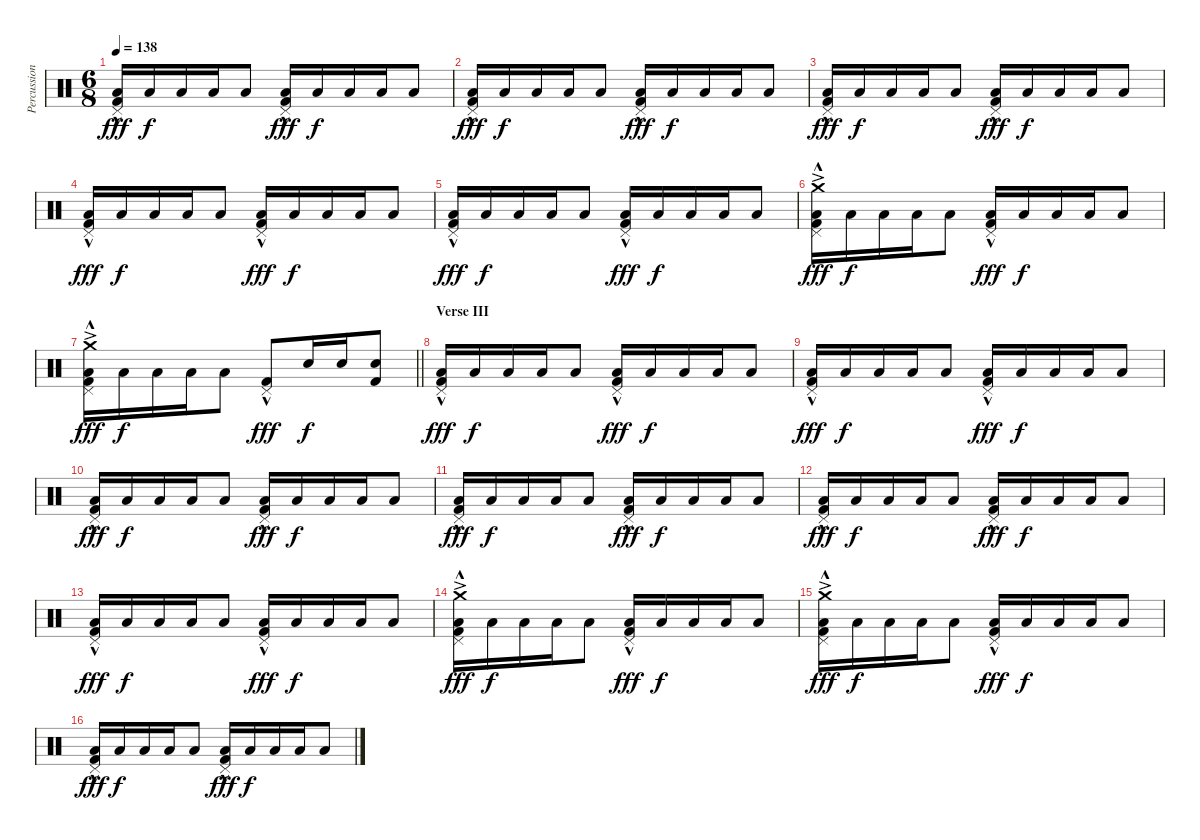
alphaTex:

\track ("Percussion" "Percussion") {instrument percussion}
\staff {score}
\articulation defaults
\ts (6 8)
\tempo 138
\clef neutral
\ks c
("Pedal Hi-Hat (hit)"{hac} "Low Floor Tom (hit)" "Kick (hit) 2").16{dy fff} "Low Floor Tom (hit)".16{dy f} "Low Floor Tom (hit)".16 "Low Floor Tom (hit)".16 "Low Floor Tom (hit)".8 ("Pedal Hi-Hat (hit)"{hac} "Low Floor Tom (hit)" "Kick (hit) 2").16{dy fff} "Low Floor Tom (hit)".16{dy f} "Low Floor Tom (hit)".16 "Low Floor Tom (hit)".16 "Low Floor Tom (hit)".8 |
("Pedal Hi-Hat (hit)"{hac} "Low Floor Tom (hit)" "Kick (hit) 2").16{dy fff} "Low Floor Tom (hit)".16{dy f} "Low Floor Tom (hit)".16 "Low Floor Tom (hit)".16 "Low Floor Tom (hit)".8 ("Pedal Hi-Hat (hit)"{hac} "Low Floor Tom (hit)" "Kick (hit) 2").16{dy fff} "Low Floor Tom (hit)".16{dy f} "Low Floor Tom (hit)".16 "Low Floor Tom (hit)".16 "Low Floor Tom (hit)".8 |
("Pedal Hi-Hat (hit)"{hac} "Low Floor Tom (hit)" "Kick (hit) 2").16{dy fff} "Low Floor Tom (hit)".16{dy f} "Low Floor Tom (hit)".16 "Low Floor Tom (hit)".16 "Low Floor Tom (hit)".8 ("Pedal Hi-Hat (hit)"{hac} "Low Floor Tom (hit)" "Kick (hit) 2").16{dy fff} "Low Floor Tom (hit)".16{dy f} "Low Floor Tom (hit)".16 "Low Floor Tom (hit)".16 "Low Floor Tom (hit)".8 |
("Pedal Hi-Hat (hit)"{hac} "Low Floor Tom (hit)" "Kick (hit) 2").16{dy fff} "Low Floor Tom (hit)".16{dy f} "Low Floor Tom (hit)".16 "Low Floor Tom (hit)".16 "Low Floor Tom (hit)".8 ("Pedal Hi-Hat (hit)"{hac} "Low Floor Tom (hit)" "Kick (hit) 2").16{dy fff} "Low Floor Tom (hit)".16{dy f} "Low Floor Tom (hit)".16 "Low Floor Tom (hit)".16 "Low Floor Tom (hit)".8 |
("Pedal Hi-Hat (hit)"{hac} "Low Floor Tom (hit)" "Kick (hit) 2").16{dy fff} "Low Floor Tom (hit)".16{dy f} "Low Floor Tom (hit)".16 "Low Floor Tom (hit)".16 "Low Floor Tom (hit)".8 ("Pedal Hi-Hat (hit)"{hac} "Low Floor Tom (hit)" "Kick (hit) 2").16{dy fff} "Low Floor Tom (hit)".16{dy f} "Low Floor Tom (hit)".16 "Low Floor Tom (hit)".16 "Low Floor Tom (hit)".8 |
("Crash medium (hit)"{ac} "Pedal Hi-Hat (hit)"{hac} "Low Floor Tom (hit)" "Kick (hit) 2").16{dy fff} "Low Floor Tom (hit)".16{dy f} "Low Floor Tom (hit)".16 "Low Floor Tom (hit)".16 "Low Floor Tom (hit)".8 ("Pedal Hi-Hat (hit)"{hac} "Low Floor Tom (hit)" "Kick (hit) 2").16{dy fff} "Low Floor Tom (hit)".16{dy f} "Low Floor Tom (hit)".16 "Low Floor Tom (hit)".16 "Low Floor Tom (hit)".8 |
\barLineRight lightlight
("Crash medium (hit)"{ac} "Pedal Hi-Hat (hit)"{hac} "Low Floor Tom (hit)" "Kick (hit) 2").16{dy fff} "Low Floor Tom (hit)".16{dy f} "Low Floor Tom (hit)".16 "Low Floor Tom (hit)".16 "Low Floor Tom (hit)".8 ("Pedal Hi-Hat (hit)"{hac} "Kick (hit) 2").8{dy fff} "Electric Snare (hit)".16{dy f} "Electric Snare (hit)".16 ("Electric Snare (hit)" "Kick (hit) 2").8 |
\section ("" "Verse III")
("Pedal Hi-Hat (hit)"{hac} "Low Floor Tom (hit)" "Kick (hit) 2").16{dy fff} "Low Floor Tom (hit)".16{dy f} "Low Floor Tom (hit)".16 "Low Floor Tom (hit)".16 "Low Floor Tom (hit)".8 ("Pedal Hi-Hat (hit)"{hac} "Low Floor Tom (hit)" "Kick (hit) 2").16{dy fff} "Low Floor Tom (hit)".16{dy f} "Low Floor Tom (hit)".16 "Low Floor Tom (hit)".16 "Low Floor Tom (hit)".8 |
("Pedal Hi-Hat (hit)"{hac} "Low Floor Tom (hit)" "Kick (hit) 2").16{dy fff} "Low Floor Tom (hit)".16{dy f} "Low Floor Tom (hit)".16 "Low Floor Tom (hit)".16 "Low Floor Tom (hit)".8 ("Pedal Hi-Hat (hit)"{hac} "Low Floor Tom (hit)" "Kick (hit) 2").16{dy fff} "Low Floor Tom (hit)".16{dy f} "Low Floor Tom (hit)".16 "Low Floor Tom (hit)".16 "Low Floor Tom (hit)".8 |
("Pedal Hi-Hat (hit)"{hac} "Low Floor Tom (hit)" "Kick (hit) 2").16{dy fff} "Low Floor Tom (hit)".16{dy f} "Low Floor Tom (hit)".16 "Low Floor Tom (hit)".16 "Low Floor Tom (hit)".8 ("Pedal Hi-Hat (hit)"{hac} "Low Floor Tom (hit)" "Kick (hit) 2").16{dy fff} "Low Floor Tom (hit)".16{dy f} "Low Floor Tom (hit)".16 "Low Floor Tom (hit)".16 "Low Floor Tom (hit)".8 |
("Pedal Hi-Hat (hit)"{hac} "Low Floor Tom (hit)" "Kick (hit) 2").16{dy fff} "Low Floor Tom (hit)".16{dy f} "Low Floor Tom (hit)".16 "Low Floor Tom (hit)".16 "Low Floor Tom (hit)".8 ("Pedal Hi-Hat (hit)"{hac} "Low Floor Tom (hit)" "Kick (hit) 2").16{dy fff} "Low Floor Tom (hit)".16{dy f} "Low Floor Tom (hit)".16 "Low Floor Tom (hit)".16 "Low Floor Tom (hit)".8 |
("Pedal Hi-Hat (hit)"{hac} "Low Floor Tom (hit)" "Kick (hit) 2").16{dy fff} "Low Floor Tom (hit)".16{dy f} "Low Floor Tom (hit)".16 "Low Floor Tom (hit)".16 "Low Floor Tom (hit)".8 ("Pedal Hi-Hat (hit)"{hac} "Low Floor Tom (hit)" "Kick (hit) 2").16{dy fff} "Low Floor Tom (hit)".16{dy f} "Low Floor Tom (hit)".16 "Low Floor Tom (hit)".16 "Low Floor Tom (hit)".8 |
("Pedal Hi-Hat (hit)"{hac} "Low Floor Tom (hit)" "Kick (hit) 2").16{dy fff} "Low Floor Tom (hit)".16{dy f} "Low Floor Tom (hit)".16 "Low Floor Tom (hit)".16 "Low Floor Tom (hit)".8 ("Pedal Hi-Hat (hit)"{hac} "Low Floor Tom (hit)" "Kick (hit) 2").16{dy fff} "Low Floor Tom (hit)".16{dy f} "Low Floor Tom (hit)".16 "Low Floor Tom (hit)".16 "Low Floor Tom (hit)".8 |
("Crash medium (hit)"{ac} "Pedal Hi-Hat (hit)"{hac} "Low Floor Tom (hit)" "Kick (hit) 2").16{dy fff} "Low Floor Tom (hit)".16{dy f} "Low Floor Tom (hit)".16 "Low Floor Tom (hit)".16 "Low Floor Tom (hit)".8 ("Pedal Hi-Hat (hit)"{hac} "Low Floor Tom (hit)" "Kick (hit) 2").16{dy fff} "Low Floor Tom (hit)".16{dy f} "Low Floor Tom (hit)".16 "Low Floor Tom (hit)".16 "Low Floor Tom (hit)".8 |
("Crash medium (hit)"{ac} "Pedal Hi-Hat (hit)"{hac} "Low Floor Tom (hit)" "Kick (hit) 2").16{dy fff} "Low Floor Tom (hit)".16{dy f} "Low Floor Tom (hit)".16 "Low Floor Tom (hit)".16 "Low Floor Tom (hit)".8 ("Pedal Hi-Hat (hit)"{hac} "Low Floor Tom (hit)" "Kick (hit) 2").16{dy fff} "Low Floor Tom (hit)".16{dy f} "Low Floor Tom (hit)".16 "Low Floor Tom (hit)".16 "Low Floor Tom (hit)".8 |
("Pedal Hi-Hat (hit)"{hac} "Low Floor Tom (hit)" "Kick (hit) 2").16{dy fff} "Low Floor Tom (hit)".16{dy f} "Low Floor Tom (hit)".16 "Low Floor Tom (hit)".16 "Low Floor Tom (hit)".8 ("Pedal Hi-Hat (hit)"{hac} "Low Floor Tom (hit)" "Kick (hit) 2").16{dy fff} "Low Floor Tom (hit)".16{dy f} "Low Floor Tom (hit)".16 "Low Floor Tom (hit)".16 "Low Floor Tom (hit)".8
